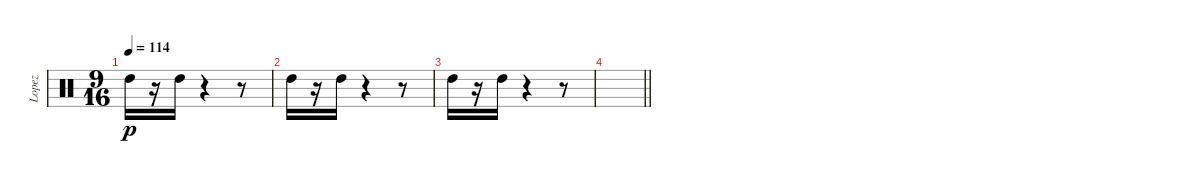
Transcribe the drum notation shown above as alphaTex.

\track ("Lopez" "Lopez") {instrument percussion}
\staff {score}
\articulation defaults
\ts (9 16)
\tempo 114
\clef neutral
\ks c "High Tom (hit)".16{dy p}
r.16 "High Tom (hit)".16 r.4 r.8 |
"High Tom (hit)".16 r.16 "High Tom (hit)".16 r.4 r.8 |
"High Tom (hit)".16 r.16 "High Tom (hit)".16 r.4 r.8 |
\barLineRight lightlight
